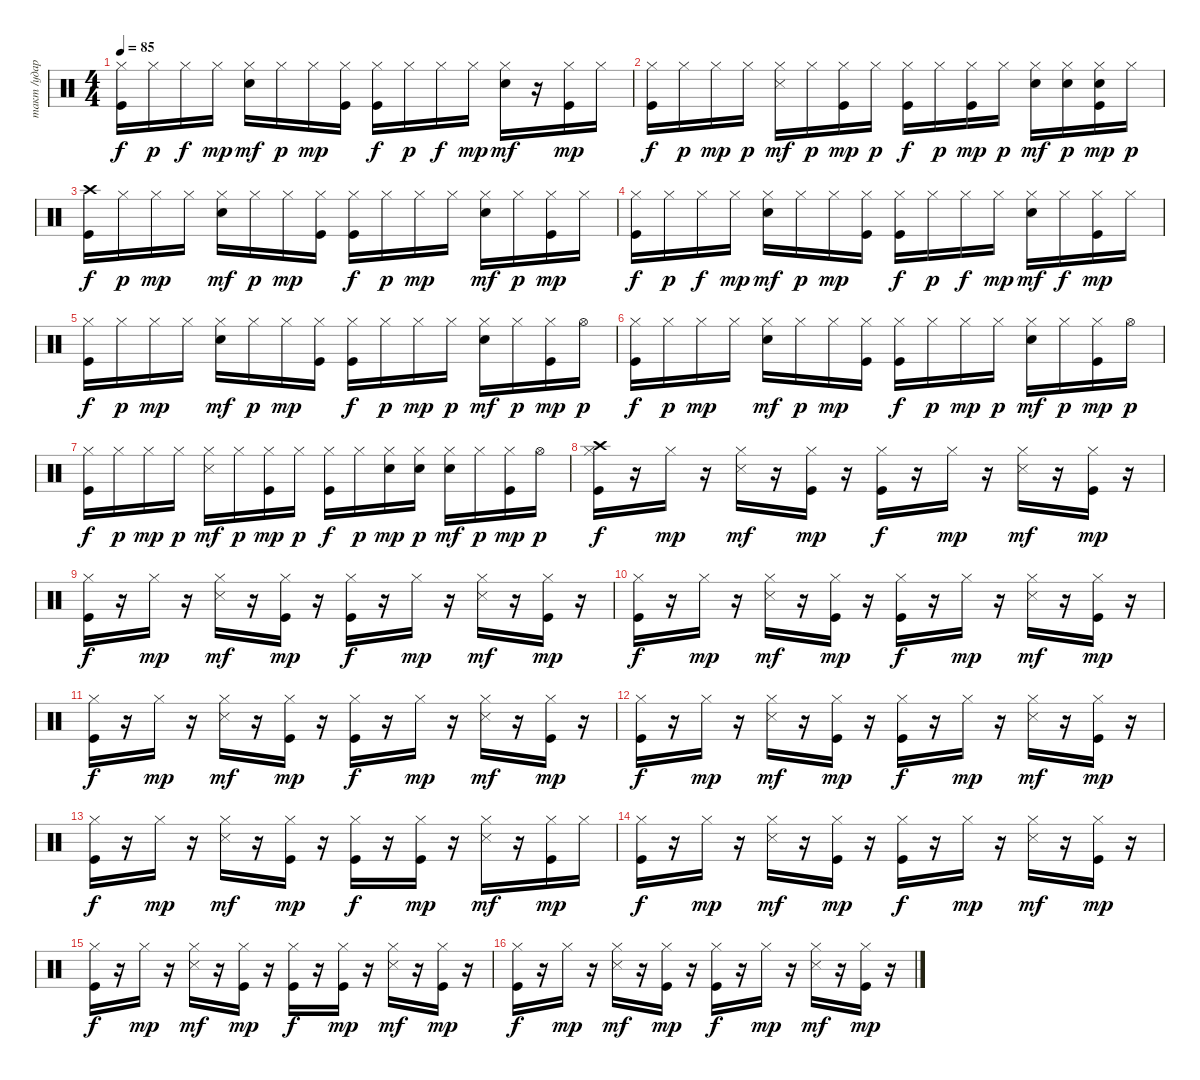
\track ("такт /ударные/" "такт /удар") {instrument percussion}
\staff {score}
\articulation defaults
\ts (4 4)
\tempo 85
\clef neutral
\ks c
("Kick (hit)" "Hi-Hat (closed)").16{dy f} "Hi-Hat (closed)".16{dy p} "Hi-Hat (closed)".16{dy f} "Hi-Hat (closed)".16{dy mp} ("Snare (hit) 2" "Hi-Hat (closed)").16{dy mf} "Hi-Hat (closed)".16{dy p} "Hi-Hat (closed)".16{dy mp} ("Kick (hit)" "Hi-Hat (closed)").16 ("Kick (hit)" "Hi-Hat (closed)").16{dy f} "Hi-Hat (closed)".16{dy p} "Hi-Hat (closed)".16{dy f} "Hi-Hat (closed)".16{dy mp} ("Snare (hit) 2" "Hi-Hat (closed)").16{dy mf} r.16 ("Kick (hit)" "Hi-Hat (closed)").16{dy mp} "Hi-Hat (closed)".16 |
("Kick (hit)" "Hi-Hat (closed)").16{dy f} "Hi-Hat (closed)".16{dy p} "Hi-Hat (closed)".16{dy mp} "Hi-Hat (closed)".16{dy p} ("Hi-Hat (closed)" "Snare (side stick) 3").16{dy mf} "Hi-Hat (closed)".16{dy p} ("Kick (hit)" "Hi-Hat (closed)").16{dy mp} "Hi-Hat (closed)".16{dy p} ("Kick (hit)" "Hi-Hat (closed)").16{dy f} "Hi-Hat (closed)".16{dy p} ("Kick (hit)" "Hi-Hat (closed)").16{dy mp} "Hi-Hat (closed)".16{dy p} ("Snare (hit) 2" "Hi-Hat (closed)").16{dy mf} ("Snare (hit) 2" "Hi-Hat (closed)").16{dy p} ("Kick (hit)" "Snare (hit) 2" "Hi-Hat (closed)").16{dy mp} "Hi-Hat (closed)".16{dy p} |
("Kick (hit)" "Crash high (hit)").16{dy f} "Hi-Hat (closed)".16{dy p} "Hi-Hat (closed)".16{dy mp} "Hi-Hat (closed)".16 ("Snare (hit) 2" "Hi-Hat (closed)").16{dy mf} "Hi-Hat (closed)".16{dy p} "Hi-Hat (closed)".16{dy mp} ("Kick (hit)" "Hi-Hat (closed)").16 ("Kick (hit)" "Hi-Hat (closed)").16{dy f} "Hi-Hat (closed)".16{dy p} "Hi-Hat (closed)".16{dy mp} "Hi-Hat (closed)".16 ("Snare (hit) 2" "Hi-Hat (closed)").16{dy mf} "Hi-Hat (closed)".16{dy p} ("Kick (hit)" "Hi-Hat (closed)").16{dy mp} "Hi-Hat (closed)".16 |
("Kick (hit)" "Hi-Hat (closed)").16{dy f} "Hi-Hat (closed)".16{dy p} "Hi-Hat (closed)".16{dy f} "Hi-Hat (closed)".16{dy mp} ("Snare (hit) 2" "Hi-Hat (closed)").16{dy mf} "Hi-Hat (closed)".16{dy p} "Hi-Hat (closed)".16{dy mp} ("Kick (hit)" "Hi-Hat (closed)").16 ("Kick (hit)" "Hi-Hat (closed)").16{dy f} "Hi-Hat (closed)".16{dy p} "Hi-Hat (closed)".16{dy f} "Hi-Hat (closed)".16{dy mp} ("Snare (hit) 2" "Hi-Hat (closed)").16{dy mf} "Hi-Hat (closed)".16{dy f} ("Kick (hit)" "Hi-Hat (closed)").16{dy mp} "Hi-Hat (closed)".16 |
("Kick (hit)" "Hi-Hat (closed)").16{dy f} "Hi-Hat (closed)".16{dy p} "Hi-Hat (closed)".16{dy mp} "Hi-Hat (closed)".16 ("Snare (hit) 2" "Hi-Hat (closed)").16{dy mf} "Hi-Hat (closed)".16{dy p} "Hi-Hat (closed)".16{dy mp} ("Kick (hit)" "Hi-Hat (closed)").16 ("Kick (hit)" "Hi-Hat (closed)").16{dy f} "Hi-Hat (closed)".16{dy p} "Hi-Hat (closed)".16{dy mp} "Hi-Hat (closed)".16{dy p} ("Snare (hit) 2" "Hi-Hat (closed)").16{dy mf} "Hi-Hat (closed)".16{dy p} ("Kick (hit)" "Hi-Hat (closed)").16{dy mp} "Hi-Hat (open)".16{dy p} |
("Kick (hit)" "Hi-Hat (closed)").16{dy f} "Hi-Hat (closed)".16{dy p} "Hi-Hat (closed)".16{dy mp} "Hi-Hat (closed)".16 ("Snare (hit) 2" "Hi-Hat (closed)").16{dy mf} "Hi-Hat (closed)".16{dy p} "Hi-Hat (closed)".16{dy mp} ("Kick (hit)" "Hi-Hat (closed)").16 ("Kick (hit)" "Hi-Hat (closed)").16{dy f} "Hi-Hat (closed)".16{dy p} "Hi-Hat (closed)".16{dy mp} "Hi-Hat (closed)".16{dy p} ("Snare (hit) 2" "Hi-Hat (closed)").16{dy mf} "Hi-Hat (closed)".16{dy p} ("Kick (hit)" "Hi-Hat (closed)").16{dy mp} "Hi-Hat (open)".16{dy p} |
("Kick (hit)" "Hi-Hat (closed)").16{dy f} "Hi-Hat (closed)".16{dy p} "Hi-Hat (closed)".16{dy mp} "Hi-Hat (closed)".16{dy p} ("Hi-Hat (closed)" "Snare (side stick) 3").16{dy mf} "Hi-Hat (closed)".16{dy p} ("Kick (hit)" "Hi-Hat (closed)").16{dy mp} "Hi-Hat (closed)".16{dy p} ("Kick (hit)" "Hi-Hat (closed)").16{dy f} "Hi-Hat (closed)".16{dy p} ("Snare (hit) 2" "Hi-Hat (closed)").16{dy mp} ("Snare (hit) 2" "Hi-Hat (closed)").16{dy p} ("Snare (hit) 2" "Hi-Hat (closed)").16{dy mf} "Hi-Hat (closed)".16{dy p} ("Kick (hit)" "Hi-Hat (closed)").16{dy mp} "Hi-Hat (open)".16{dy p} |
("Kick (hit)" "Hi-Hat (closed)" "Crash high (hit)").16{dy f} r.16 "Hi-Hat (closed)".16{dy mp} r.16 ("Hi-Hat (closed)" "Snare (side stick) 3").16{dy mf} r.16 ("Kick (hit)" "Hi-Hat (closed)").16{dy mp} r.16 ("Kick (hit)" "Hi-Hat (closed)").16{dy f} r.16 "Hi-Hat (closed)".16{dy mp} r.16 ("Hi-Hat (closed)" "Snare (side stick) 3").16{dy mf} r.16 ("Kick (hit)" "Hi-Hat (closed)").16{dy mp} r.16 |
("Kick (hit)" "Hi-Hat (closed)").16{dy f} r.16 "Hi-Hat (closed)".16{dy mp} r.16 ("Hi-Hat (closed)" "Snare (side stick) 3").16{dy mf} r.16 ("Kick (hit)" "Hi-Hat (closed)").16{dy mp} r.16 ("Kick (hit)" "Hi-Hat (closed)").16{dy f} r.16 "Hi-Hat (closed)".16{dy mp} r.16 ("Hi-Hat (closed)" "Snare (side stick) 3").16{dy mf} r.16 ("Kick (hit)" "Hi-Hat (closed)").16{dy mp} r.16 |
("Kick (hit)" "Hi-Hat (closed)").16{dy f} r.16 "Hi-Hat (closed)".16{dy mp} r.16 ("Hi-Hat (closed)" "Snare (side stick) 3").16{dy mf} r.16 ("Kick (hit)" "Hi-Hat (closed)").16{dy mp} r.16 ("Kick (hit)" "Hi-Hat (closed)").16{dy f} r.16 "Hi-Hat (closed)".16{dy mp} r.16 ("Hi-Hat (closed)" "Snare (side stick) 3").16{dy mf} r.16 ("Kick (hit)" "Hi-Hat (closed)").16{dy mp} r.16 |
("Kick (hit)" "Hi-Hat (closed)").16{dy f} r.16 "Hi-Hat (closed)".16{dy mp} r.16 ("Hi-Hat (closed)" "Snare (side stick) 3").16{dy mf} r.16 ("Kick (hit)" "Hi-Hat (closed)").16{dy mp} r.16 ("Kick (hit)" "Hi-Hat (closed)").16{dy f} r.16 "Hi-Hat (closed)".16{dy mp} r.16 ("Hi-Hat (closed)" "Snare (side stick) 3").16{dy mf} r.16 ("Kick (hit)" "Hi-Hat (closed)").16{dy mp} r.16 |
("Kick (hit)" "Hi-Hat (closed)").16{dy f} r.16 "Hi-Hat (closed)".16{dy mp} r.16 ("Hi-Hat (closed)" "Snare (side stick) 3").16{dy mf} r.16 ("Kick (hit)" "Hi-Hat (closed)").16{dy mp} r.16 ("Kick (hit)" "Hi-Hat (closed)").16{dy f} r.16 "Hi-Hat (closed)".16{dy mp} r.16 ("Hi-Hat (closed)" "Snare (side stick) 3").16{dy mf} r.16 ("Kick (hit)" "Hi-Hat (closed)").16{dy mp} r.16 |
("Kick (hit)" "Hi-Hat (closed)").16{dy f} r.16 "Hi-Hat (closed)".16{dy mp} r.16 ("Hi-Hat (closed)" "Snare (side stick) 3").16{dy mf} r.16 ("Kick (hit)" "Hi-Hat (closed)").16{dy mp} r.16 ("Kick (hit)" "Hi-Hat (closed)").16{dy f} r.16 ("Kick (hit)" "Hi-Hat (closed)").16{dy mp} r.16 ("Hi-Hat (closed)" "Snare (side stick) 3").16{dy mf} r.16 ("Kick (hit)" "Hi-Hat (closed)").16{dy mp} "Hi-Hat (closed)".16 |
("Kick (hit)" "Hi-Hat (closed)").16{dy f} r.16 "Hi-Hat (closed)".16{dy mp} r.16 ("Hi-Hat (closed)" "Snare (side stick) 3").16{dy mf} r.16 ("Kick (hit)" "Hi-Hat (closed)").16{dy mp} r.16 ("Kick (hit)" "Hi-Hat (closed)").16{dy f} r.16 "Hi-Hat (closed)".16{dy mp} r.16 ("Hi-Hat (closed)" "Snare (side stick) 3").16{dy mf} r.16 ("Kick (hit)" "Hi-Hat (closed)").16{dy mp} r.16 |
("Kick (hit)" "Hi-Hat (closed)").16{dy f} r.16 "Hi-Hat (closed)".16{dy mp} r.16 ("Hi-Hat (closed)" "Snare (side stick) 3").16{dy mf} r.16 ("Kick (hit)" "Hi-Hat (closed)").16{dy mp} r.16 ("Kick (hit)" "Hi-Hat (closed)").16{dy f} r.16 ("Kick (hit)" "Hi-Hat (closed)").16{dy mp} r.16 ("Hi-Hat (closed)" "Snare (side stick) 3").16{dy mf} r.16 ("Kick (hit)" "Hi-Hat (closed)").16{dy mp} r.16 |
("Kick (hit)" "Hi-Hat (closed)").16{dy f} r.16 "Hi-Hat (closed)".16{dy mp} r.16 ("Hi-Hat (closed)" "Snare (side stick) 3").16{dy mf} r.16 ("Kick (hit)" "Hi-Hat (closed)").16{dy mp} r.16 ("Kick (hit)" "Hi-Hat (closed)").16{dy f} r.16 "Hi-Hat (closed)".16{dy mp} r.16 ("Hi-Hat (closed)" "Snare (side stick) 3").16{dy mf} r.16 ("Kick (hit)" "Hi-Hat (closed)").16{dy mp} r.16
